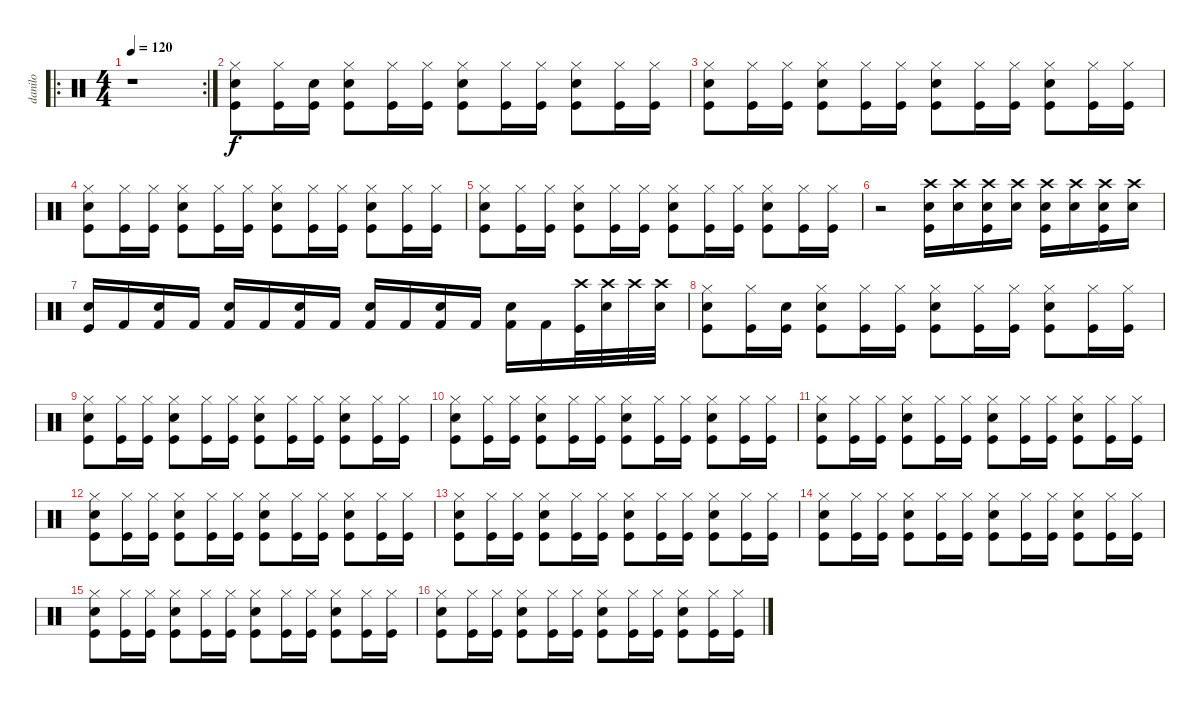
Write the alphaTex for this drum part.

\track ("danilo" "danilo") {instrument percussion}
\staff {score}
\articulation defaults
\ro
\rc 2
\ts (4 4)
\tempo 120
\clef neutral
\ks c
r.1{dy f} |
("Electric Snare (hit)" "Kick (hit)" "Hi-Hat (closed)").8 ("Kick (hit)" "Hi-Hat (closed)").16 ("Kick (hit)" "Snare (hit)").16 ("Electric Snare (hit)" "Kick (hit)" "Hi-Hat (closed)").8 ("Kick (hit)" "Hi-Hat (closed)").16 ("Kick (hit)" "Hi-Hat (closed)").16 ("Electric Snare (hit)" "Kick (hit)" "Hi-Hat (closed)").8 ("Kick (hit)" "Hi-Hat (closed)").16 ("Kick (hit)" "Hi-Hat (closed)").16 ("Electric Snare (hit)" "Kick (hit)" "Hi-Hat (closed)").8 ("Kick (hit)" "Hi-Hat (closed)").16 ("Kick (hit)" "Hi-Hat (closed)").16 |
("Electric Snare (hit)" "Kick (hit)" "Hi-Hat (closed)").8 ("Kick (hit)" "Hi-Hat (closed)").16 ("Kick (hit)" "Hi-Hat (closed)").16 ("Electric Snare (hit)" "Kick (hit)" "Hi-Hat (closed)").8 ("Kick (hit)" "Hi-Hat (closed)").16 ("Kick (hit)" "Hi-Hat (closed)").16 ("Electric Snare (hit)" "Kick (hit)" "Hi-Hat (closed)").8 ("Kick (hit)" "Hi-Hat (closed)").16 ("Kick (hit)" "Hi-Hat (closed)").16 ("Electric Snare (hit)" "Kick (hit)" "Hi-Hat (closed)").8 ("Kick (hit)" "Hi-Hat (closed)").16 ("Kick (hit)" "Hi-Hat (closed)").16 |
("Electric Snare (hit)" "Kick (hit)" "Hi-Hat (closed)").8 ("Kick (hit)" "Hi-Hat (closed)").16 ("Kick (hit)" "Hi-Hat (closed)").16 ("Electric Snare (hit)" "Kick (hit)" "Hi-Hat (closed)").8 ("Kick (hit)" "Hi-Hat (closed)").16 ("Kick (hit)" "Hi-Hat (closed)").16 ("Electric Snare (hit)" "Kick (hit)" "Hi-Hat (closed)").8 ("Kick (hit)" "Hi-Hat (closed)").16 ("Kick (hit)" "Hi-Hat (closed)").16 ("Electric Snare (hit)" "Kick (hit)" "Hi-Hat (closed)").8 ("Kick (hit)" "Hi-Hat (closed)").16 ("Kick (hit)" "Hi-Hat (closed)").16 |
("Electric Snare (hit)" "Kick (hit)" "Hi-Hat (closed)").8 ("Kick (hit)" "Hi-Hat (closed)").16 ("Kick (hit)" "Hi-Hat (closed)").16 ("Electric Snare (hit)" "Kick (hit)" "Hi-Hat (closed)").8 ("Kick (hit)" "Hi-Hat (closed)").16 ("Kick (hit)" "Hi-Hat (closed)").16 ("Electric Snare (hit)" "Kick (hit)" "Hi-Hat (closed)").8 ("Kick (hit)" "Hi-Hat (closed)").16 ("Kick (hit)" "Hi-Hat (closed)").16 ("Electric Snare (hit)" "Kick (hit)" "Hi-Hat (closed)").8 ("Kick (hit)" "Hi-Hat (closed)").16 ("Kick (hit)" "Hi-Hat (closed)").16 |
r.2 ("Kick (hit)" "Electric Snare (hit)" "Crash high (hit)").16 ("Electric Snare (hit)" "Crash high (hit)").16 ("Kick (hit)" "Electric Snare (hit)" "Crash high (hit)").16 ("Electric Snare (hit)" "Crash high (hit)").16 ("Kick (hit)" "Electric Snare (hit)" "Crash high (hit)").16 ("Electric Snare (hit)" "Crash high (hit)").16 ("Kick (hit)" "Electric Snare (hit)" "Crash high (hit)").16 ("Electric Snare (hit)" "Crash high (hit)").16 |
("Kick (hit)" "Electric Snare (hit)").16 "Kick (hit) 2".16 ("Electric Snare (hit)" "Kick (hit) 2").16 "Kick (hit) 2".16 ("Electric Snare (hit)" "Kick (hit) 2").16 "Kick (hit) 2".16 ("Electric Snare (hit)" "Kick (hit) 2").16 "Kick (hit) 2".16 ("Electric Snare (hit)" "Kick (hit) 2").16 "Kick (hit) 2".16 ("Electric Snare (hit)" "Kick (hit) 2").16 "Kick (hit) 2".16 ("Electric Snare (hit)" "Kick (hit) 2").16 "Kick (hit) 2".16 ("Crash high (hit)" "Kick (hit)").32 ("Electric Snare (hit)" "Crash high (hit)").32 "Crash high (hit)".32 ("Electric Snare (hit)" "Crash high (hit)").32 |
("Electric Snare (hit)" "Kick (hit)" "Hi-Hat (closed)").8 ("Kick (hit)" "Hi-Hat (closed)").16 ("Kick (hit)" "Snare (hit)").16 ("Electric Snare (hit)" "Kick (hit)" "Hi-Hat (closed)").8 ("Kick (hit)" "Hi-Hat (closed)").16 ("Kick (hit)" "Hi-Hat (closed)").16 ("Electric Snare (hit)" "Kick (hit)" "Hi-Hat (closed)").8 ("Kick (hit)" "Hi-Hat (closed)").16 ("Kick (hit)" "Hi-Hat (closed)").16 ("Electric Snare (hit)" "Kick (hit)" "Hi-Hat (closed)").8 ("Kick (hit)" "Hi-Hat (closed)").16 ("Kick (hit)" "Hi-Hat (closed)").16 |
("Electric Snare (hit)" "Kick (hit)" "Hi-Hat (closed)").8 ("Kick (hit)" "Hi-Hat (closed)").16 ("Kick (hit)" "Hi-Hat (closed)").16 ("Electric Snare (hit)" "Kick (hit)" "Hi-Hat (closed)").8 ("Kick (hit)" "Hi-Hat (closed)").16 ("Kick (hit)" "Hi-Hat (closed)").16 ("Electric Snare (hit)" "Kick (hit)" "Hi-Hat (closed)").8 ("Kick (hit)" "Hi-Hat (closed)").16 ("Kick (hit)" "Hi-Hat (closed)").16 ("Electric Snare (hit)" "Kick (hit)" "Hi-Hat (closed)").8 ("Kick (hit)" "Hi-Hat (closed)").16 ("Kick (hit)" "Hi-Hat (closed)").16 |
("Electric Snare (hit)" "Kick (hit)" "Hi-Hat (closed)").8 ("Kick (hit)" "Hi-Hat (closed)").16 ("Kick (hit)" "Hi-Hat (closed)").16 ("Electric Snare (hit)" "Kick (hit)" "Hi-Hat (closed)").8 ("Kick (hit)" "Hi-Hat (closed)").16 ("Kick (hit)" "Hi-Hat (closed)").16 ("Electric Snare (hit)" "Kick (hit)" "Hi-Hat (closed)").8 ("Kick (hit)" "Hi-Hat (closed)").16 ("Kick (hit)" "Hi-Hat (closed)").16 ("Electric Snare (hit)" "Kick (hit)" "Hi-Hat (closed)").8 ("Kick (hit)" "Hi-Hat (closed)").16 ("Kick (hit)" "Hi-Hat (closed)").16 |
("Electric Snare (hit)" "Kick (hit)" "Hi-Hat (closed)").8 ("Kick (hit)" "Hi-Hat (closed)").16 ("Kick (hit)" "Hi-Hat (closed)").16 ("Electric Snare (hit)" "Kick (hit)" "Hi-Hat (closed)").8 ("Kick (hit)" "Hi-Hat (closed)").16 ("Kick (hit)" "Hi-Hat (closed)").16 ("Electric Snare (hit)" "Kick (hit)" "Hi-Hat (closed)").8 ("Kick (hit)" "Hi-Hat (closed)").16 ("Kick (hit)" "Hi-Hat (closed)").16 ("Electric Snare (hit)" "Kick (hit)" "Hi-Hat (closed)").8 ("Kick (hit)" "Hi-Hat (closed)").16 ("Kick (hit)" "Hi-Hat (closed)").16 |
("Electric Snare (hit)" "Kick (hit)" "Hi-Hat (closed)").8 ("Kick (hit)" "Hi-Hat (closed)").16 ("Kick (hit)" "Hi-Hat (closed)").16 ("Electric Snare (hit)" "Kick (hit)" "Hi-Hat (closed)").8 ("Kick (hit)" "Hi-Hat (closed)").16 ("Kick (hit)" "Hi-Hat (closed)").16 ("Electric Snare (hit)" "Kick (hit)" "Hi-Hat (closed)").8 ("Kick (hit)" "Hi-Hat (closed)").16 ("Kick (hit)" "Hi-Hat (closed)").16 ("Electric Snare (hit)" "Kick (hit)" "Hi-Hat (closed)").8 ("Kick (hit)" "Hi-Hat (closed)").16 ("Kick (hit)" "Hi-Hat (closed)").16 |
("Electric Snare (hit)" "Kick (hit)" "Hi-Hat (closed)").8 ("Kick (hit)" "Hi-Hat (closed)").16 ("Kick (hit)" "Hi-Hat (closed)").16 ("Electric Snare (hit)" "Kick (hit)" "Hi-Hat (closed)").8 ("Kick (hit)" "Hi-Hat (closed)").16 ("Kick (hit)" "Hi-Hat (closed)").16 ("Electric Snare (hit)" "Kick (hit)" "Hi-Hat (closed)").8 ("Kick (hit)" "Hi-Hat (closed)").16 ("Kick (hit)" "Hi-Hat (closed)").16 ("Electric Snare (hit)" "Kick (hit)" "Hi-Hat (closed)").8 ("Kick (hit)" "Hi-Hat (closed)").16 ("Kick (hit)" "Hi-Hat (closed)").16 |
("Electric Snare (hit)" "Kick (hit)" "Hi-Hat (closed)").8 ("Kick (hit)" "Hi-Hat (closed)").16 ("Kick (hit)" "Hi-Hat (closed)").16 ("Electric Snare (hit)" "Kick (hit)" "Hi-Hat (closed)").8 ("Kick (hit)" "Hi-Hat (closed)").16 ("Kick (hit)" "Hi-Hat (closed)").16 ("Electric Snare (hit)" "Kick (hit)" "Hi-Hat (closed)").8 ("Kick (hit)" "Hi-Hat (closed)").16 ("Kick (hit)" "Hi-Hat (closed)").16 ("Electric Snare (hit)" "Kick (hit)" "Hi-Hat (closed)").8 ("Kick (hit)" "Hi-Hat (closed)").16 ("Kick (hit)" "Hi-Hat (closed)").16 |
("Electric Snare (hit)" "Kick (hit)" "Hi-Hat (closed)").8 ("Kick (hit)" "Hi-Hat (closed)").16 ("Kick (hit)" "Hi-Hat (closed)").16 ("Electric Snare (hit)" "Kick (hit)" "Hi-Hat (closed)").8 ("Kick (hit)" "Hi-Hat (closed)").16 ("Kick (hit)" "Hi-Hat (closed)").16 ("Electric Snare (hit)" "Kick (hit)" "Hi-Hat (closed)").8 ("Kick (hit)" "Hi-Hat (closed)").16 ("Kick (hit)" "Hi-Hat (closed)").16 ("Electric Snare (hit)" "Kick (hit)" "Hi-Hat (closed)").8 ("Kick (hit)" "Hi-Hat (closed)").16 ("Kick (hit)" "Hi-Hat (closed)").16 |
("Electric Snare (hit)" "Kick (hit)" "Hi-Hat (closed)").8 ("Kick (hit)" "Hi-Hat (closed)").16 ("Kick (hit)" "Hi-Hat (closed)").16 ("Electric Snare (hit)" "Kick (hit)" "Hi-Hat (closed)").8 ("Kick (hit)" "Hi-Hat (closed)").16 ("Kick (hit)" "Hi-Hat (closed)").16 ("Electric Snare (hit)" "Kick (hit)" "Hi-Hat (closed)").8 ("Kick (hit)" "Hi-Hat (closed)").16 ("Kick (hit)" "Hi-Hat (closed)").16 ("Electric Snare (hit)" "Kick (hit)" "Hi-Hat (closed)").8 ("Kick (hit)" "Hi-Hat (closed)").16 ("Kick (hit)" "Hi-Hat (closed)").16
